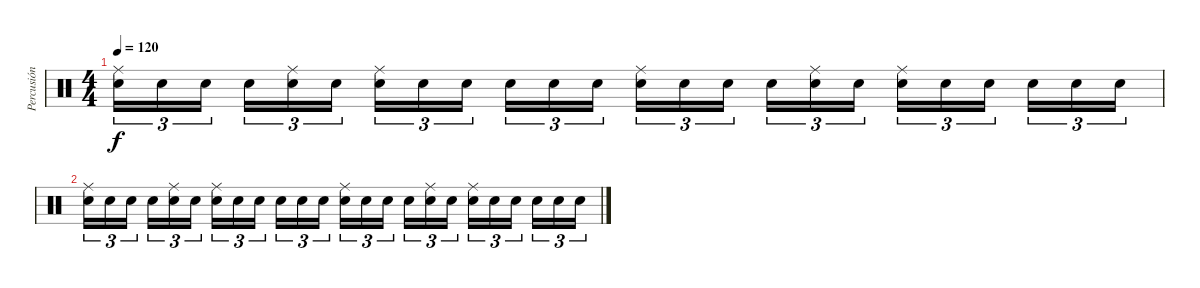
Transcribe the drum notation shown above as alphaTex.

\track ("Percusión" "Percusión") {instrument percussion}
\staff {score}
\articulation defaults
\ts (4 4)
\tempo 120
\clef neutral
\ks c
("Ride (middle)" "Snare (hit)").16{tu (3 2) dy f} "Snare (hit)".16{tu (3 2)} "Snare (hit)".16{tu (3 2)} "Snare (hit)".16{tu (3 2)} ("Ride (middle)" "Snare (hit)").16{tu (3 2)} "Snare (hit)".16{tu (3 2)} ("Ride (middle)" "Snare (hit)").16{tu (3 2)} "Snare (hit)".16{tu (3 2)} "Snare (hit)".16{tu (3 2)} "Snare (hit)".16{tu (3 2)} "Snare (hit)".16{tu (3 2)} "Snare (hit)".16{tu (3 2)} ("Ride (middle)" "Snare (hit)").16{tu (3 2)} "Snare (hit)".16{tu (3 2)} "Snare (hit)".16{tu (3 2)} "Snare (hit)".16{tu (3 2)} ("Ride (middle)" "Snare (hit)").16{tu (3 2)} "Snare (hit)".16{tu (3 2)} ("Ride (middle)" "Snare (hit)").16{tu (3 2)} "Snare (hit)".16{tu (3 2)} "Snare (hit)".16{tu (3 2)} "Snare (hit)".16{tu (3 2)} "Snare (hit)".16{tu (3 2)} "Snare (hit)".16{tu (3 2)} |
("Ride (middle)" "Snare (hit)").16{tu (3 2)} "Snare (hit)".16{tu (3 2)} "Snare (hit)".16{tu (3 2)} "Snare (hit)".16{tu (3 2)} ("Ride (middle)" "Snare (hit)").16{tu (3 2)} "Snare (hit)".16{tu (3 2)} ("Ride (middle)" "Snare (hit)").16{tu (3 2)} "Snare (hit)".16{tu (3 2)} "Snare (hit)".16{tu (3 2)} "Snare (hit)".16{tu (3 2)} "Snare (hit)".16{tu (3 2)} "Snare (hit)".16{tu (3 2)} ("Ride (middle)" "Snare (hit)").16{tu (3 2)} "Snare (hit)".16{tu (3 2)} "Snare (hit)".16{tu (3 2)} "Snare (hit)".16{tu (3 2)} ("Ride (middle)" "Snare (hit)").16{tu (3 2)} "Snare (hit)".16{tu (3 2)} ("Ride (middle)" "Snare (hit)").16{tu (3 2)} "Snare (hit)".16{tu (3 2)} "Snare (hit)".16{tu (3 2)} "Snare (hit)".16{tu (3 2)} "Snare (hit)".16{tu (3 2)} "Snare (hit)".16{tu (3 2)}
